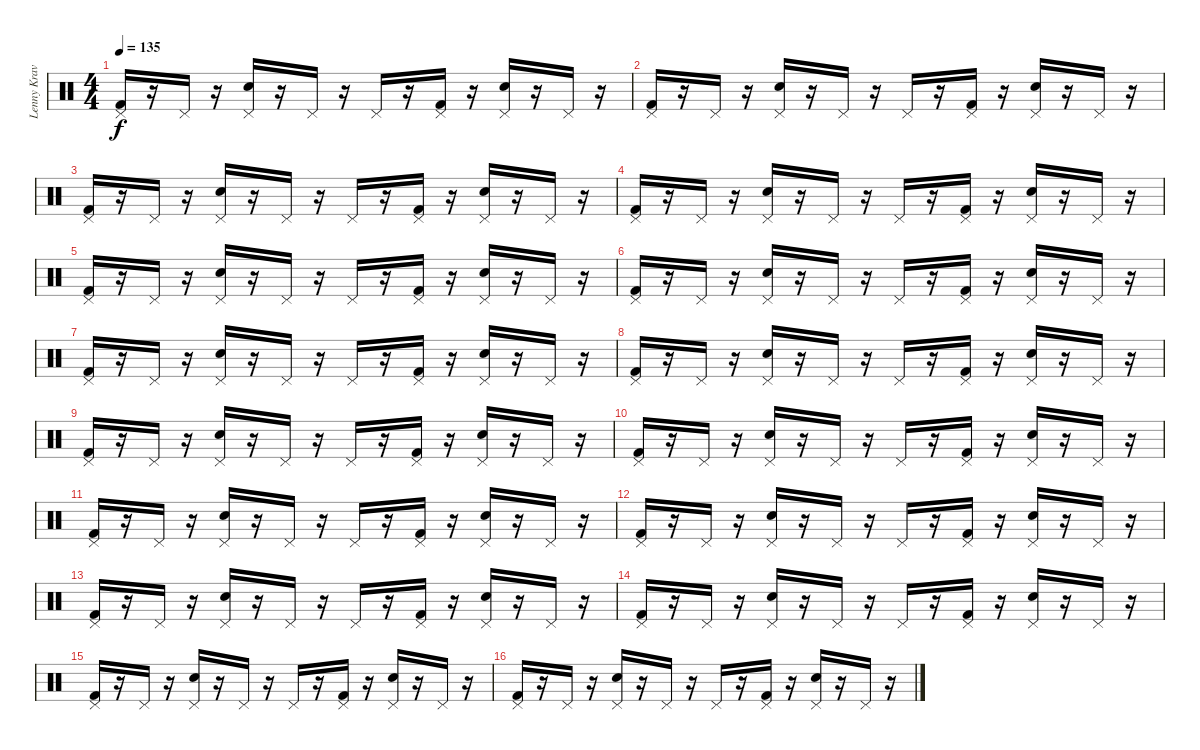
\track ("Lenny Kravitz (drums)" "Lenny Krav") {instrument percussion}
\staff {score}
\articulation defaults
\ts (4 4)
\tempo 135
\clef neutral
\ks c
("Pedal Hi-Hat (hit)" "Kick (hit) 2").16{dy f} r.16 "Pedal Hi-Hat (hit)".16 r.16 ("Pedal Hi-Hat (hit)" "Electric Snare (hit)").16 r.16 "Pedal Hi-Hat (hit)".16 r.16 "Pedal Hi-Hat (hit)".16 r.16 ("Pedal Hi-Hat (hit)" "Kick (hit) 2").16 r.16 ("Pedal Hi-Hat (hit)" "Electric Snare (hit)").16 r.16 "Pedal Hi-Hat (hit)".16 r.16 |
("Pedal Hi-Hat (hit)" "Kick (hit) 2").16 r.16 "Pedal Hi-Hat (hit)".16 r.16 ("Pedal Hi-Hat (hit)" "Electric Snare (hit)").16 r.16 "Pedal Hi-Hat (hit)".16 r.16 "Pedal Hi-Hat (hit)".16 r.16 ("Pedal Hi-Hat (hit)" "Kick (hit) 2").16 r.16 ("Pedal Hi-Hat (hit)" "Electric Snare (hit)").16 r.16 "Pedal Hi-Hat (hit)".16 r.16 |
("Pedal Hi-Hat (hit)" "Kick (hit) 2").16 r.16 "Pedal Hi-Hat (hit)".16 r.16 ("Pedal Hi-Hat (hit)" "Electric Snare (hit)").16 r.16 "Pedal Hi-Hat (hit)".16 r.16 "Pedal Hi-Hat (hit)".16 r.16 ("Pedal Hi-Hat (hit)" "Kick (hit) 2").16 r.16 ("Pedal Hi-Hat (hit)" "Electric Snare (hit)").16 r.16 "Pedal Hi-Hat (hit)".16 r.16 |
("Pedal Hi-Hat (hit)" "Kick (hit) 2").16 r.16 "Pedal Hi-Hat (hit)".16 r.16 ("Pedal Hi-Hat (hit)" "Electric Snare (hit)").16 r.16 "Pedal Hi-Hat (hit)".16 r.16 "Pedal Hi-Hat (hit)".16 r.16 ("Pedal Hi-Hat (hit)" "Kick (hit) 2").16 r.16 ("Pedal Hi-Hat (hit)" "Electric Snare (hit)").16 r.16 "Pedal Hi-Hat (hit)".16 r.16 |
("Pedal Hi-Hat (hit)" "Kick (hit) 2").16 r.16 "Pedal Hi-Hat (hit)".16 r.16 ("Pedal Hi-Hat (hit)" "Electric Snare (hit)").16 r.16 "Pedal Hi-Hat (hit)".16 r.16 "Pedal Hi-Hat (hit)".16 r.16 ("Pedal Hi-Hat (hit)" "Kick (hit) 2").16 r.16 ("Pedal Hi-Hat (hit)" "Electric Snare (hit)").16 r.16 "Pedal Hi-Hat (hit)".16 r.16 |
("Pedal Hi-Hat (hit)" "Kick (hit) 2").16 r.16 "Pedal Hi-Hat (hit)".16 r.16 ("Pedal Hi-Hat (hit)" "Electric Snare (hit)").16 r.16 "Pedal Hi-Hat (hit)".16 r.16 "Pedal Hi-Hat (hit)".16 r.16 ("Pedal Hi-Hat (hit)" "Kick (hit) 2").16 r.16 ("Pedal Hi-Hat (hit)" "Electric Snare (hit)").16 r.16 "Pedal Hi-Hat (hit)".16 r.16 |
("Pedal Hi-Hat (hit)" "Kick (hit) 2").16 r.16 "Pedal Hi-Hat (hit)".16 r.16 ("Pedal Hi-Hat (hit)" "Electric Snare (hit)").16 r.16 "Pedal Hi-Hat (hit)".16 r.16 "Pedal Hi-Hat (hit)".16 r.16 ("Pedal Hi-Hat (hit)" "Kick (hit) 2").16 r.16 ("Pedal Hi-Hat (hit)" "Electric Snare (hit)").16 r.16 "Pedal Hi-Hat (hit)".16 r.16 |
("Pedal Hi-Hat (hit)" "Kick (hit) 2").16 r.16 "Pedal Hi-Hat (hit)".16 r.16 ("Pedal Hi-Hat (hit)" "Electric Snare (hit)").16 r.16 "Pedal Hi-Hat (hit)".16 r.16 "Pedal Hi-Hat (hit)".16 r.16 ("Pedal Hi-Hat (hit)" "Kick (hit) 2").16 r.16 ("Pedal Hi-Hat (hit)" "Electric Snare (hit)").16 r.16 "Pedal Hi-Hat (hit)".16 r.16 |
("Pedal Hi-Hat (hit)" "Kick (hit) 2").16 r.16 "Pedal Hi-Hat (hit)".16 r.16 ("Pedal Hi-Hat (hit)" "Electric Snare (hit)").16 r.16 "Pedal Hi-Hat (hit)".16 r.16 "Pedal Hi-Hat (hit)".16 r.16 ("Pedal Hi-Hat (hit)" "Kick (hit) 2").16 r.16 ("Pedal Hi-Hat (hit)" "Electric Snare (hit)").16 r.16 "Pedal Hi-Hat (hit)".16 r.16 |
("Pedal Hi-Hat (hit)" "Kick (hit) 2").16 r.16 "Pedal Hi-Hat (hit)".16 r.16 ("Pedal Hi-Hat (hit)" "Electric Snare (hit)").16 r.16 "Pedal Hi-Hat (hit)".16 r.16 "Pedal Hi-Hat (hit)".16 r.16 ("Pedal Hi-Hat (hit)" "Kick (hit) 2").16 r.16 ("Pedal Hi-Hat (hit)" "Electric Snare (hit)").16 r.16 "Pedal Hi-Hat (hit)".16 r.16 |
("Pedal Hi-Hat (hit)" "Kick (hit) 2").16 r.16 "Pedal Hi-Hat (hit)".16 r.16 ("Pedal Hi-Hat (hit)" "Electric Snare (hit)").16 r.16 "Pedal Hi-Hat (hit)".16 r.16 "Pedal Hi-Hat (hit)".16 r.16 ("Pedal Hi-Hat (hit)" "Kick (hit) 2").16 r.16 ("Pedal Hi-Hat (hit)" "Electric Snare (hit)").16 r.16 "Pedal Hi-Hat (hit)".16 r.16 |
("Pedal Hi-Hat (hit)" "Kick (hit) 2").16 r.16 "Pedal Hi-Hat (hit)".16 r.16 ("Pedal Hi-Hat (hit)" "Electric Snare (hit)").16 r.16 "Pedal Hi-Hat (hit)".16 r.16 "Pedal Hi-Hat (hit)".16 r.16 ("Pedal Hi-Hat (hit)" "Kick (hit) 2").16 r.16 ("Pedal Hi-Hat (hit)" "Electric Snare (hit)").16 r.16 "Pedal Hi-Hat (hit)".16 r.16 |
("Pedal Hi-Hat (hit)" "Kick (hit) 2").16 r.16 "Pedal Hi-Hat (hit)".16 r.16 ("Pedal Hi-Hat (hit)" "Electric Snare (hit)").16 r.16 "Pedal Hi-Hat (hit)".16 r.16 "Pedal Hi-Hat (hit)".16 r.16 ("Pedal Hi-Hat (hit)" "Kick (hit) 2").16 r.16 ("Pedal Hi-Hat (hit)" "Electric Snare (hit)").16 r.16 "Pedal Hi-Hat (hit)".16 r.16 |
("Pedal Hi-Hat (hit)" "Kick (hit) 2").16 r.16 "Pedal Hi-Hat (hit)".16 r.16 ("Pedal Hi-Hat (hit)" "Electric Snare (hit)").16 r.16 "Pedal Hi-Hat (hit)".16 r.16 "Pedal Hi-Hat (hit)".16 r.16 ("Pedal Hi-Hat (hit)" "Kick (hit) 2").16 r.16 ("Pedal Hi-Hat (hit)" "Electric Snare (hit)").16 r.16 "Pedal Hi-Hat (hit)".16 r.16 |
("Pedal Hi-Hat (hit)" "Kick (hit) 2").16 r.16 "Pedal Hi-Hat (hit)".16 r.16 ("Pedal Hi-Hat (hit)" "Electric Snare (hit)").16 r.16 "Pedal Hi-Hat (hit)".16 r.16 "Pedal Hi-Hat (hit)".16 r.16 ("Pedal Hi-Hat (hit)" "Kick (hit) 2").16 r.16 ("Pedal Hi-Hat (hit)" "Electric Snare (hit)").16 r.16 "Pedal Hi-Hat (hit)".16 r.16 |
("Pedal Hi-Hat (hit)" "Kick (hit) 2").16 r.16 "Pedal Hi-Hat (hit)".16 r.16 ("Pedal Hi-Hat (hit)" "Electric Snare (hit)").16 r.16 "Pedal Hi-Hat (hit)".16 r.16 "Pedal Hi-Hat (hit)".16 r.16 ("Pedal Hi-Hat (hit)" "Kick (hit) 2").16 r.16 ("Pedal Hi-Hat (hit)" "Electric Snare (hit)").16 r.16 "Pedal Hi-Hat (hit)".16 r.16
